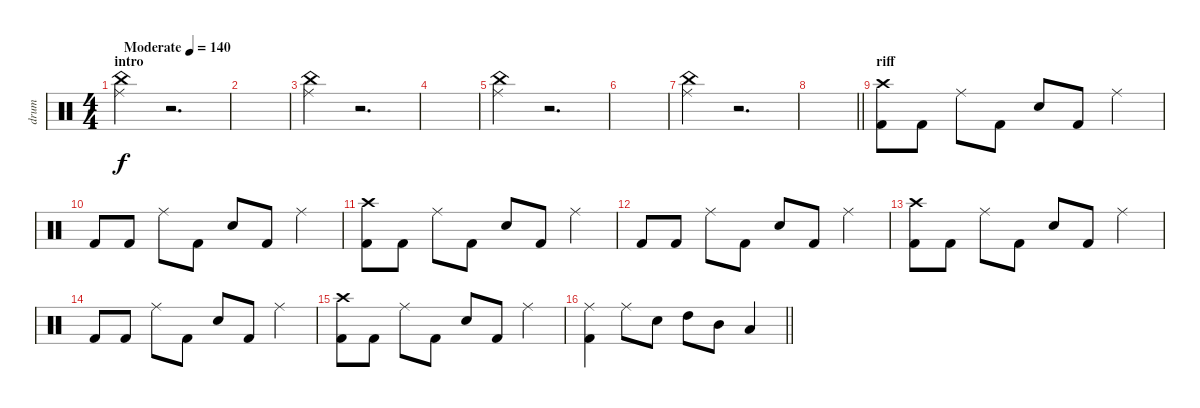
\track ("drum" "drum") {instrument percussion}
\staff {score}
\articulation defaults
\ts (4 4)
\section ("" "intro")
\tempo (140 "Moderate")
\clef neutral
\ks c
("China (hit)" "Ride (middle)").4{dy f} r.2{d} |
|
("China (hit)" "Ride (middle)").4 r.2{d} |
|
("China (hit)" "Ride (middle)").4 r.2{d} |
|
("China (hit)" "Ride (middle)").4 r.2{d} |
\barLineRight lightlight
|
\section ("" "riff")
("Crash high (hit)" "Kick (hit) 2").8 "Kick (hit) 2".8 "Ride (middle)".8 "Kick (hit) 2".8 "Electric Snare (hit)".8 "Kick (hit) 2".8 "Ride (middle)".4 |
"Kick (hit) 2".8 "Kick (hit) 2".8 "Ride (middle)".8 "Kick (hit) 2".8 "Electric Snare (hit)".8 "Kick (hit) 2".8 "Ride (middle)".4 |
("Crash high (hit)" "Kick (hit) 2").8 "Kick (hit) 2".8 "Ride (middle)".8 "Kick (hit) 2".8 "Electric Snare (hit)".8 "Kick (hit) 2".8 "Ride (middle)".4 |
"Kick (hit) 2".8 "Kick (hit) 2".8 "Ride (middle)".8 "Kick (hit) 2".8 "Electric Snare (hit)".8 "Kick (hit) 2".8 "Ride (middle)".4 |
("Crash high (hit)" "Kick (hit) 2").8 "Kick (hit) 2".8 "Ride (middle)".8 "Kick (hit) 2".8 "Electric Snare (hit)".8 "Kick (hit) 2".8 "Ride (middle)".4 |
"Kick (hit) 2".8 "Kick (hit) 2".8 "Ride (middle)".8 "Kick (hit) 2".8 "Electric Snare (hit)".8 "Kick (hit) 2".8 "Ride (middle)".4 |
("Crash high (hit)" "Kick (hit) 2").8 "Kick (hit) 2".8 "Ride (middle)".8 "Kick (hit) 2".8 "Electric Snare (hit)".8 "Kick (hit) 2".8 "Ride (middle)".4 |
\barLineRight lightlight
("Ride (middle)" "Kick (hit) 2").4 "Ride (middle)".8 "Electric Snare (hit)".8 "High Tom (hit)".8 "Mid Tom (hit)".8 "Low Tom (hit)".4
